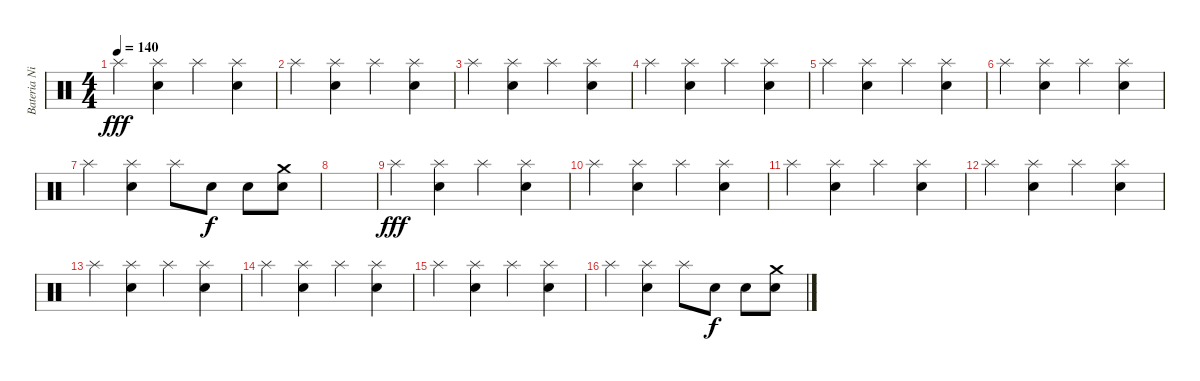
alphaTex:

\track ("Bateria Nicolas Cabrera" "Bateria Ni") {instrument percussion}
\staff {score}
\articulation defaults
\ts (4 4)
\tempo 140
\clef neutral
\ks c "Splash (hit)".4{dy fff}
("Splash (hit)" "Electric Snare (hit)").4 "Splash (hit)".4 ("Splash (hit)" "Electric Snare (hit)").4 |
"Splash (hit)".4 ("Splash (hit)" "Electric Snare (hit)").4 "Splash (hit)".4 ("Splash (hit)" "Electric Snare (hit)").4 |
"Splash (hit)".4 ("Splash (hit)" "Electric Snare (hit)").4 "Splash (hit)".4 ("Splash (hit)" "Electric Snare (hit)").4 |
"Splash (hit)".4 ("Splash (hit)" "Electric Snare (hit)").4 "Splash (hit)".4 ("Splash (hit)" "Electric Snare (hit)").4 |
"Splash (hit)".4 ("Splash (hit)" "Electric Snare (hit)").4 "Splash (hit)".4 ("Splash (hit)" "Electric Snare (hit)").4 |
"Splash (hit)".4 ("Splash (hit)" "Electric Snare (hit)").4 "Splash (hit)".4 ("Splash (hit)" "Electric Snare (hit)").4 |
"Splash (hit)".4 ("Splash (hit)" "Electric Snare (hit)").4 "Splash (hit)".8 "Snare (hit) 2".8{dy f} "Snare (hit) 2".8 ("Snare (hit) 2" "Crash medium (hit)").8 |
|
"Splash (hit)".4{dy fff} ("Splash (hit)" "Electric Snare (hit)").4 "Splash (hit)".4 ("Splash (hit)" "Electric Snare (hit)").4 |
"Splash (hit)".4 ("Splash (hit)" "Electric Snare (hit)").4 "Splash (hit)".4 ("Splash (hit)" "Electric Snare (hit)").4 |
"Splash (hit)".4 ("Splash (hit)" "Electric Snare (hit)").4 "Splash (hit)".4 ("Splash (hit)" "Electric Snare (hit)").4 |
"Splash (hit)".4 ("Splash (hit)" "Electric Snare (hit)").4 "Splash (hit)".4 ("Splash (hit)" "Electric Snare (hit)").4 |
"Splash (hit)".4 ("Splash (hit)" "Electric Snare (hit)").4 "Splash (hit)".4 ("Splash (hit)" "Electric Snare (hit)").4 |
"Splash (hit)".4 ("Splash (hit)" "Electric Snare (hit)").4 "Splash (hit)".4 ("Splash (hit)" "Electric Snare (hit)").4 |
"Splash (hit)".4 ("Splash (hit)" "Electric Snare (hit)").4 "Splash (hit)".4 ("Splash (hit)" "Electric Snare (hit)").4 |
"Splash (hit)".4 ("Splash (hit)" "Electric Snare (hit)").4 "Splash (hit)".8 "Snare (hit) 2".8{dy f} "Snare (hit) 2".8 ("Snare (hit) 2" "Crash medium (hit)").8
